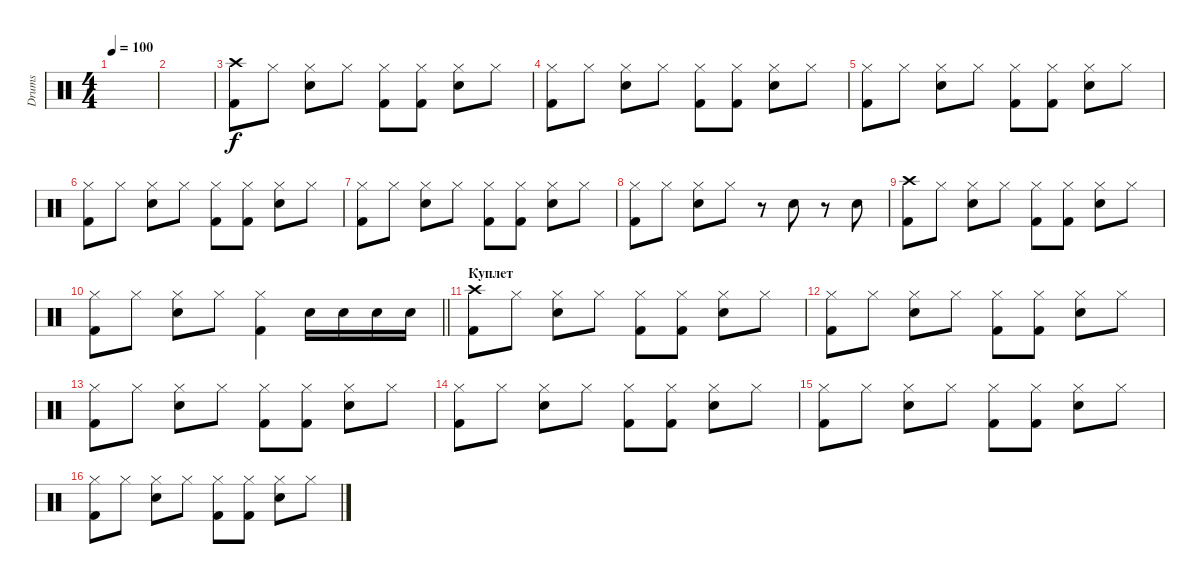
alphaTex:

\track ("Drums" "Drums") {instrument percussion}
\staff {score}
\articulation defaults
\ts (4 4)
\tempo 100
\clef neutral
\ks c
|
|
("Crash high (hit)" "Kick (hit) 2").8 "Hi-Hat (closed)".8 ("Hi-Hat (closed)" "Snare (hit) 2").8 "Hi-Hat (closed)".8 ("Hi-Hat (closed)" "Kick (hit) 2").8 ("Hi-Hat (closed)" "Kick (hit) 2").8 ("Hi-Hat (closed)" "Snare (hit) 2").8 "Hi-Hat (closed)".8 |
("Hi-Hat (closed)" "Kick (hit) 2").8 "Hi-Hat (closed)".8 ("Hi-Hat (closed)" "Snare (hit) 2").8 "Hi-Hat (closed)".8 ("Hi-Hat (closed)" "Kick (hit) 2").8 ("Hi-Hat (closed)" "Kick (hit) 2").8 ("Hi-Hat (closed)" "Snare (hit) 2").8 "Hi-Hat (closed)".8 |
("Hi-Hat (closed)" "Kick (hit) 2").8 "Hi-Hat (closed)".8 ("Hi-Hat (closed)" "Snare (hit) 2").8 "Hi-Hat (closed)".8 ("Hi-Hat (closed)" "Kick (hit) 2").8 ("Hi-Hat (closed)" "Kick (hit) 2").8 ("Hi-Hat (closed)" "Snare (hit) 2").8 "Hi-Hat (closed)".8 |
("Hi-Hat (closed)" "Kick (hit) 2").8 "Hi-Hat (closed)".8 ("Hi-Hat (closed)" "Snare (hit) 2").8 "Hi-Hat (closed)".8 ("Hi-Hat (closed)" "Kick (hit) 2").8 ("Hi-Hat (closed)" "Kick (hit) 2").8 ("Hi-Hat (closed)" "Snare (hit) 2").8 "Hi-Hat (closed)".8 |
("Hi-Hat (closed)" "Kick (hit) 2").8 "Hi-Hat (closed)".8 ("Hi-Hat (closed)" "Snare (hit) 2").8 "Hi-Hat (closed)".8 ("Hi-Hat (closed)" "Kick (hit) 2").8 ("Hi-Hat (closed)" "Kick (hit) 2").8 ("Hi-Hat (closed)" "Snare (hit) 2").8 "Hi-Hat (closed)".8 |
("Hi-Hat (closed)" "Kick (hit) 2").8 "Hi-Hat (closed)".8 ("Hi-Hat (closed)" "Snare (hit) 2").8 "Hi-Hat (closed)".8 r.8 "Snare (hit) 2".8 r.8 "Snare (hit) 2".8 |
("Crash high (hit)" "Kick (hit) 2").8 "Hi-Hat (closed)".8 ("Hi-Hat (closed)" "Snare (hit) 2").8 "Hi-Hat (closed)".8 ("Hi-Hat (closed)" "Kick (hit) 2").8 ("Hi-Hat (closed)" "Kick (hit) 2").8 ("Hi-Hat (closed)" "Snare (hit) 2").8 "Hi-Hat (closed)".8 |
\barLineRight lightlight
("Hi-Hat (closed)" "Kick (hit) 2").8 "Hi-Hat (closed)".8 ("Hi-Hat (closed)" "Snare (hit) 2").8 "Hi-Hat (closed)".8 ("Hi-Hat (closed)" "Kick (hit) 2").4 "Snare (hit) 2".16 "Snare (hit) 2".16 "Snare (hit) 2".16 "Snare (hit) 2".16 |
\section ("" "Куплет")
("Crash high (hit)" "Kick (hit) 2").8 "Hi-Hat (closed)".8 ("Hi-Hat (closed)" "Snare (hit) 2").8 "Hi-Hat (closed)".8 ("Hi-Hat (closed)" "Kick (hit) 2").8 ("Hi-Hat (closed)" "Kick (hit) 2").8 ("Hi-Hat (closed)" "Snare (hit) 2").8 "Hi-Hat (closed)".8 |
("Hi-Hat (closed)" "Kick (hit) 2").8 "Hi-Hat (closed)".8 ("Hi-Hat (closed)" "Snare (hit) 2").8 "Hi-Hat (closed)".8 ("Hi-Hat (closed)" "Kick (hit) 2").8 ("Hi-Hat (closed)" "Kick (hit) 2").8 ("Hi-Hat (closed)" "Snare (hit) 2").8 "Hi-Hat (closed)".8 |
("Hi-Hat (closed)" "Kick (hit) 2").8 "Hi-Hat (closed)".8 ("Hi-Hat (closed)" "Snare (hit) 2").8 "Hi-Hat (closed)".8 ("Hi-Hat (closed)" "Kick (hit) 2").8 ("Hi-Hat (closed)" "Kick (hit) 2").8 ("Hi-Hat (closed)" "Snare (hit) 2").8 "Hi-Hat (closed)".8 |
("Hi-Hat (closed)" "Kick (hit) 2").8 "Hi-Hat (closed)".8 ("Hi-Hat (closed)" "Snare (hit) 2").8 "Hi-Hat (closed)".8 ("Hi-Hat (closed)" "Kick (hit) 2").8 ("Hi-Hat (closed)" "Kick (hit) 2").8 ("Hi-Hat (closed)" "Snare (hit) 2").8 "Hi-Hat (closed)".8 |
("Hi-Hat (closed)" "Kick (hit) 2").8 "Hi-Hat (closed)".8 ("Hi-Hat (closed)" "Snare (hit) 2").8 "Hi-Hat (closed)".8 ("Hi-Hat (closed)" "Kick (hit) 2").8 ("Hi-Hat (closed)" "Kick (hit) 2").8 ("Hi-Hat (closed)" "Snare (hit) 2").8 "Hi-Hat (closed)".8 |
("Hi-Hat (closed)" "Kick (hit) 2").8 "Hi-Hat (closed)".8 ("Hi-Hat (closed)" "Snare (hit) 2").8 "Hi-Hat (closed)".8 ("Hi-Hat (closed)" "Kick (hit) 2").8 ("Hi-Hat (closed)" "Kick (hit) 2").8 ("Hi-Hat (closed)" "Snare (hit) 2").8 "Hi-Hat (closed)".8
